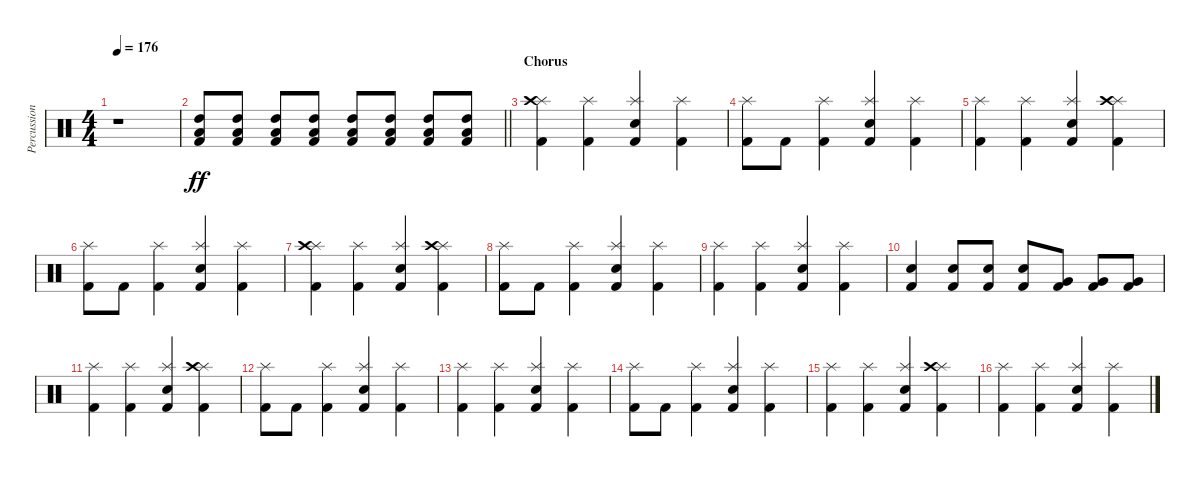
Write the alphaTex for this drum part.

\track ("Percussion" "Percussion") {instrument percussion}
\staff {score}
\articulation defaults
\ts (4 4)
\tempo 176
\clef neutral
\ks c
r.1{dy ff} |
\barLineRight lightlight
("Kick (hit) 2" "High Tom (hit)" "Low Tom (hit)").8{volume 5} ("Kick (hit) 2" "High Tom (hit)" "Low Tom (hit)").8 ("Kick (hit) 2" "High Tom (hit)" "Low Tom (hit)").8{volume 13} ("Kick (hit) 2" "High Tom (hit)" "Low Tom (hit)").8 ("Kick (hit) 2" "High Tom (hit)" "Low Tom (hit)").8{volume 13} ("Kick (hit) 2" "High Tom (hit)" "Low Tom (hit)").8 ("Kick (hit) 2" "High Tom (hit)" "Low Tom (hit)").8{volume 16} ("Kick (hit) 2" "High Tom (hit)" "Low Tom (hit)").8 |
\section ("" "Chorus")
("Kick (hit) 2" "Splash (hit)" "Crash high (hit)").4 ("Kick (hit) 2" "Splash (hit)").4 ("Kick (hit) 2" "Electric Snare (hit)" "Splash (hit)").4 ("Kick (hit) 2" "Splash (hit)").4 |
("Kick (hit) 2" "Splash (hit)").8 "Kick (hit) 2".8 ("Kick (hit) 2" "Splash (hit)").4 ("Kick (hit) 2" "Electric Snare (hit)" "Splash (hit)").4 ("Kick (hit) 2" "Splash (hit)").4 |
("Kick (hit) 2" "Splash (hit)").4 ("Kick (hit) 2" "Splash (hit)").4 ("Kick (hit) 2" "Electric Snare (hit)" "Splash (hit)").4 ("Kick (hit) 2" "Splash (hit)" "Crash high (hit)").4 |
("Kick (hit) 2" "Splash (hit)").8 "Kick (hit) 2".8 ("Kick (hit) 2" "Splash (hit)").4 ("Kick (hit) 2" "Electric Snare (hit)" "Splash (hit)").4 ("Kick (hit) 2" "Splash (hit)").4 |
("Kick (hit) 2" "Splash (hit)" "Crash high (hit)").4 ("Kick (hit) 2" "Splash (hit)").4 ("Kick (hit) 2" "Electric Snare (hit)" "Splash (hit)").4 ("Kick (hit) 2" "Splash (hit)" "Crash high (hit)").4 |
("Kick (hit) 2" "Splash (hit)").8 "Kick (hit) 2".8 ("Kick (hit) 2" "Splash (hit)").4 ("Kick (hit) 2" "Electric Snare (hit)" "Splash (hit)").4 ("Kick (hit) 2" "Splash (hit)").4 |
("Kick (hit) 2" "Splash (hit)").4 ("Kick (hit) 2" "Splash (hit)").4 ("Kick (hit) 2" "Electric Snare (hit)" "Splash (hit)").4 ("Kick (hit) 2" "Splash (hit)").4 |
("Kick (hit) 2" "Electric Snare (hit)").4 ("Kick (hit) 2" "Electric Snare (hit)").8 ("Kick (hit) 2" "Electric Snare (hit)").8 ("Kick (hit) 2" "Electric Snare (hit)").8 ("Kick (hit) 2" "Very Low Tom (hit)").8 ("Kick (hit) 2" "Very Low Tom (hit)").8 ("Kick (hit) 2" "Very Low Tom (hit)").8 |
("Kick (hit) 2" "Splash (hit)").4 ("Kick (hit) 2" "Splash (hit)").4 ("Kick (hit) 2" "Electric Snare (hit)" "Splash (hit)").4 ("Kick (hit) 2" "Splash (hit)" "Crash high (hit)").4 |
("Kick (hit) 2" "Splash (hit)").8 "Kick (hit) 2".8 ("Kick (hit) 2" "Splash (hit)").4 ("Kick (hit) 2" "Electric Snare (hit)" "Splash (hit)").4 ("Kick (hit) 2" "Splash (hit)").4 |
("Kick (hit) 2" "Splash (hit)").4 ("Kick (hit) 2" "Splash (hit)").4 ("Kick (hit) 2" "Electric Snare (hit)" "Splash (hit)").4 ("Kick (hit) 2" "Splash (hit)").4 |
("Kick (hit) 2" "Splash (hit)").8 "Kick (hit) 2".8 ("Kick (hit) 2" "Splash (hit)").4 ("Kick (hit) 2" "Electric Snare (hit)" "Splash (hit)").4 ("Kick (hit) 2" "Splash (hit)").4 |
("Kick (hit) 2" "Splash (hit)").4 ("Kick (hit) 2" "Splash (hit)").4 ("Kick (hit) 2" "Electric Snare (hit)" "Splash (hit)").4 ("Kick (hit) 2" "Splash (hit)" "Crash high (hit)").4 |
("Kick (hit) 2" "Splash (hit)").4 ("Kick (hit) 2" "Splash (hit)").4 ("Kick (hit) 2" "Electric Snare (hit)" "Splash (hit)").4 ("Kick (hit) 2" "Splash (hit)").4
